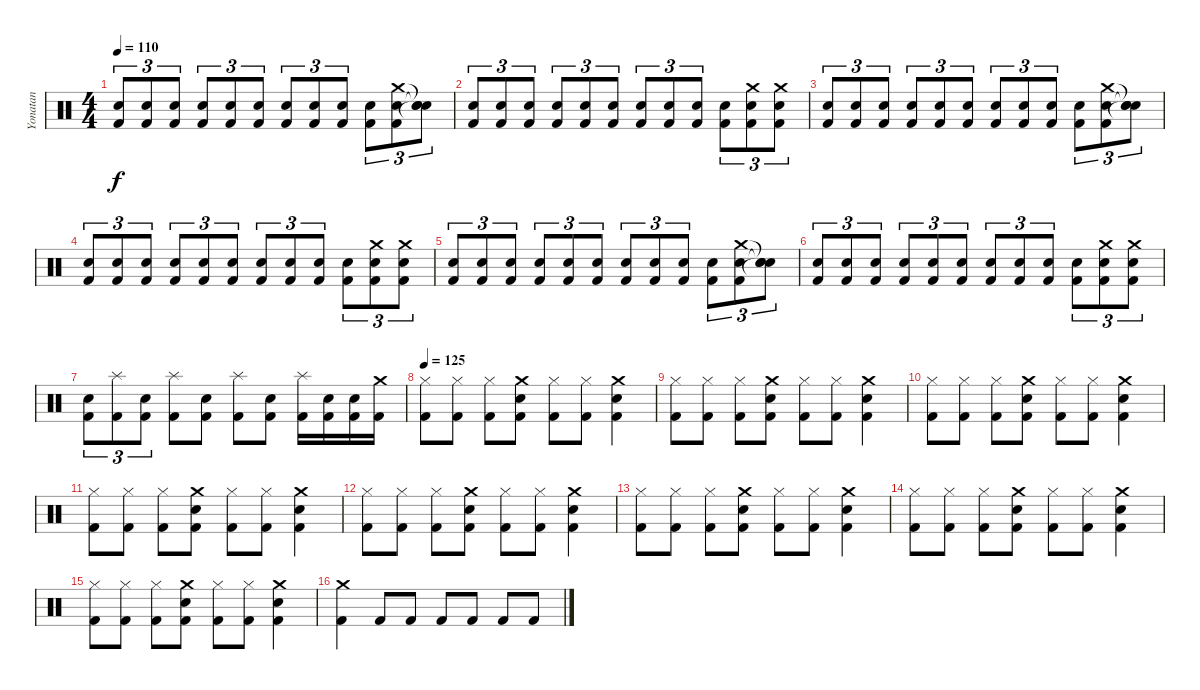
\track ("Yonatan" "Yonatan") {instrument percussion}
\staff {score}
\articulation defaults
\ts (4 4)
\tempo 110
\clef neutral
\ks c
("Kick (hit) 2" "Snare (hit) 2").8{tu (3 2) dy f} ("Kick (hit) 2" "Snare (hit) 2").8{tu (3 2)} ("Kick (hit) 2" "Snare (hit) 2").8{tu (3 2)} ("Kick (hit) 2" "Snare (hit) 2").8{tu (3 2)} ("Kick (hit) 2" "Snare (hit) 2").8{tu (3 2)} ("Kick (hit) 2" "Snare (hit) 2").8{tu (3 2)} ("Kick (hit) 2" "Snare (hit) 2").8{tu (3 2)} ("Kick (hit) 2" "Snare (hit) 2").8{tu (3 2)} ("Kick (hit) 2" "Snare (hit) 2").8{tu (3 2)} ("Kick (hit) 2" "Snare (hit) 2").8{tu (3 2)} ("Kick (hit) 2" "Snare (hit) 2" "Crash medium (hit)").8{tu (3 2)} ("Snare (hit)"{t} "Snare (hit)"{t} "Snare (hit)"{t}).8{tu (3 2)} |
("Kick (hit) 2" "Snare (hit) 2").8{tu (3 2)} ("Kick (hit) 2" "Snare (hit) 2").8{tu (3 2)} ("Kick (hit) 2" "Snare (hit) 2").8{tu (3 2)} ("Kick (hit) 2" "Snare (hit) 2").8{tu (3 2)} ("Kick (hit) 2" "Snare (hit) 2").8{tu (3 2)} ("Kick (hit) 2" "Snare (hit) 2").8{tu (3 2)} ("Kick (hit) 2" "Snare (hit) 2").8{tu (3 2)} ("Kick (hit) 2" "Snare (hit) 2").8{tu (3 2)} ("Kick (hit) 2" "Snare (hit) 2").8{tu (3 2)} ("Kick (hit) 2" "Snare (hit) 2").8{tu (3 2)} ("Kick (hit) 2" "Crash medium (hit)" "Snare (hit) 2").8{tu (3 2)} ("Kick (hit) 2" "Crash medium (hit)" "Snare (hit) 2").8{tu (3 2)} |
("Kick (hit) 2" "Snare (hit) 2").8{tu (3 2)} ("Kick (hit) 2" "Snare (hit) 2").8{tu (3 2)} ("Kick (hit) 2" "Snare (hit) 2").8{tu (3 2)} ("Kick (hit) 2" "Snare (hit) 2").8{tu (3 2)} ("Kick (hit) 2" "Snare (hit) 2").8{tu (3 2)} ("Kick (hit) 2" "Snare (hit) 2").8{tu (3 2)} ("Kick (hit) 2" "Snare (hit) 2").8{tu (3 2)} ("Kick (hit) 2" "Snare (hit) 2").8{tu (3 2)} ("Kick (hit) 2" "Snare (hit) 2").8{tu (3 2)} ("Kick (hit) 2" "Snare (hit) 2").8{tu (3 2)} ("Kick (hit) 2" "Snare (hit) 2" "Crash medium (hit)").8{tu (3 2)} ("Snare (hit)"{t} "Snare (hit)"{t} "Snare (hit)"{t}).8{tu (3 2)} |
("Kick (hit) 2" "Snare (hit) 2").8{tu (3 2)} ("Kick (hit) 2" "Snare (hit) 2").8{tu (3 2)} ("Kick (hit) 2" "Snare (hit) 2").8{tu (3 2)} ("Kick (hit) 2" "Snare (hit) 2").8{tu (3 2)} ("Kick (hit) 2" "Snare (hit) 2").8{tu (3 2)} ("Kick (hit) 2" "Snare (hit) 2").8{tu (3 2)} ("Kick (hit) 2" "Snare (hit) 2").8{tu (3 2)} ("Kick (hit) 2" "Snare (hit) 2").8{tu (3 2)} ("Kick (hit) 2" "Snare (hit) 2").8{tu (3 2)} ("Kick (hit) 2" "Snare (hit) 2").8{tu (3 2)} ("Kick (hit) 2" "Crash medium (hit)" "Snare (hit) 2").8{tu (3 2)} ("Kick (hit) 2" "Crash medium (hit)" "Snare (hit) 2").8{tu (3 2)} |
("Kick (hit) 2" "Snare (hit) 2").8{tu (3 2)} ("Kick (hit) 2" "Snare (hit) 2").8{tu (3 2)} ("Kick (hit) 2" "Snare (hit) 2").8{tu (3 2)} ("Kick (hit) 2" "Snare (hit) 2").8{tu (3 2)} ("Kick (hit) 2" "Snare (hit) 2").8{tu (3 2)} ("Kick (hit) 2" "Snare (hit) 2").8{tu (3 2)} ("Kick (hit) 2" "Snare (hit) 2").8{tu (3 2)} ("Kick (hit) 2" "Snare (hit) 2").8{tu (3 2)} ("Kick (hit) 2" "Snare (hit) 2").8{tu (3 2)} ("Kick (hit) 2" "Snare (hit) 2").8{tu (3 2)} ("Kick (hit) 2" "Snare (hit) 2" "Crash medium (hit)").8{tu (3 2)} ("Snare (hit)"{t} "Snare (hit)"{t} "Snare (hit)"{t}).8{tu (3 2)} |
("Kick (hit) 2" "Snare (hit) 2").8{tu (3 2)} ("Kick (hit) 2" "Snare (hit) 2").8{tu (3 2)} ("Kick (hit) 2" "Snare (hit) 2").8{tu (3 2)} ("Kick (hit) 2" "Snare (hit) 2").8{tu (3 2)} ("Kick (hit) 2" "Snare (hit) 2").8{tu (3 2)} ("Kick (hit) 2" "Snare (hit) 2").8{tu (3 2)} ("Kick (hit) 2" "Snare (hit) 2").8{tu (3 2)} ("Kick (hit) 2" "Snare (hit) 2").8{tu (3 2)} ("Kick (hit) 2" "Snare (hit) 2").8{tu (3 2)} ("Kick (hit) 2" "Snare (hit) 2").8{tu (3 2)} ("Kick (hit) 2" "Crash medium (hit)" "Snare (hit) 2").8{tu (3 2)} ("Kick (hit) 2" "Crash medium (hit)" "Snare (hit) 2").8{tu (3 2)} |
("Kick (hit) 2" "Snare (hit) 2").8{tu (3 2)} ("Kick (hit) 2" "Splash (hit)").8{tu (3 2)} ("Kick (hit) 2" "Snare (hit) 2").8{tu (3 2)} ("Kick (hit) 2" "Splash (hit)").8 ("Kick (hit) 2" "Snare (hit) 2").8 ("Kick (hit) 2" "Splash (hit)").8 ("Kick (hit) 2" "Snare (hit) 2").8 ("Kick (hit) 2" "Splash (hit)").16 ("Kick (hit) 2" "Snare (hit) 2").16 ("Kick (hit) 2" "Snare (hit) 2").16 ("Kick (hit) 2" "Crash medium (hit)").16 |
\tempo 125
("Kick (hit) 2" "Hi-Hat (closed)").8 ("Kick (hit) 2" "Hi-Hat (closed)").8 ("Kick (hit) 2" "Hi-Hat (closed)").8 ("Kick (hit) 2" "Snare (hit) 2" "Crash medium (hit)").8 ("Kick (hit) 2" "Hi-Hat (closed)").8 ("Kick (hit) 2" "Hi-Hat (closed)").8 ("Kick (hit) 2" "Snare (hit) 2" "Crash medium (hit)").4 |
("Kick (hit) 2" "Hi-Hat (closed)").8 ("Kick (hit) 2" "Hi-Hat (closed)").8 ("Kick (hit) 2" "Hi-Hat (closed)").8 ("Kick (hit) 2" "Snare (hit) 2" "Crash medium (hit)").8 ("Kick (hit) 2" "Hi-Hat (closed)").8 ("Kick (hit) 2" "Hi-Hat (closed)").8 ("Kick (hit) 2" "Snare (hit) 2" "Crash medium (hit)").4 |
("Kick (hit) 2" "Hi-Hat (closed)").8 ("Kick (hit) 2" "Hi-Hat (closed)").8 ("Kick (hit) 2" "Hi-Hat (closed)").8 ("Kick (hit) 2" "Snare (hit) 2" "Crash medium (hit)").8 ("Kick (hit) 2" "Hi-Hat (closed)").8 ("Kick (hit) 2" "Hi-Hat (closed)").8 ("Kick (hit) 2" "Snare (hit) 2" "Crash medium (hit)").4 |
("Kick (hit) 2" "Hi-Hat (closed)").8 ("Kick (hit) 2" "Hi-Hat (closed)").8 ("Kick (hit) 2" "Hi-Hat (closed)").8 ("Kick (hit) 2" "Snare (hit) 2" "Crash medium (hit)").8 ("Kick (hit) 2" "Hi-Hat (closed)").8 ("Kick (hit) 2" "Hi-Hat (closed)").8 ("Kick (hit) 2" "Snare (hit) 2" "Crash medium (hit)").4 |
("Kick (hit) 2" "Hi-Hat (closed)").8 ("Kick (hit) 2" "Hi-Hat (closed)").8 ("Kick (hit) 2" "Hi-Hat (closed)").8 ("Kick (hit) 2" "Snare (hit) 2" "Crash medium (hit)").8 ("Kick (hit) 2" "Hi-Hat (closed)").8 ("Kick (hit) 2" "Hi-Hat (closed)").8 ("Kick (hit) 2" "Snare (hit) 2" "Crash medium (hit)").4 |
("Kick (hit) 2" "Hi-Hat (closed)").8 ("Kick (hit) 2" "Hi-Hat (closed)").8 ("Kick (hit) 2" "Hi-Hat (closed)").8 ("Kick (hit) 2" "Snare (hit) 2" "Crash medium (hit)").8 ("Kick (hit) 2" "Hi-Hat (closed)").8 ("Kick (hit) 2" "Hi-Hat (closed)").8 ("Kick (hit) 2" "Snare (hit) 2" "Crash medium (hit)").4 |
("Kick (hit) 2" "Hi-Hat (closed)").8 ("Kick (hit) 2" "Hi-Hat (closed)").8 ("Kick (hit) 2" "Hi-Hat (closed)").8 ("Kick (hit) 2" "Snare (hit) 2" "Crash medium (hit)").8 ("Kick (hit) 2" "Hi-Hat (closed)").8 ("Kick (hit) 2" "Hi-Hat (closed)").8 ("Kick (hit) 2" "Snare (hit) 2" "Crash medium (hit)").4 |
("Kick (hit) 2" "Hi-Hat (closed)").8 ("Kick (hit) 2" "Hi-Hat (closed)").8 ("Kick (hit) 2" "Hi-Hat (closed)").8 ("Kick (hit) 2" "Snare (hit) 2" "Crash medium (hit)").8 ("Kick (hit) 2" "Hi-Hat (closed)").8 ("Kick (hit) 2" "Hi-Hat (closed)").8 ("Kick (hit) 2" "Snare (hit) 2" "Crash medium (hit)").4 |
("Kick (hit) 2" "Crash medium (hit)").4 "Kick (hit) 2".8 "Kick (hit) 2".8 "Kick (hit) 2".8 "Kick (hit) 2".8 "Kick (hit) 2".8 "Kick (hit) 2".8
